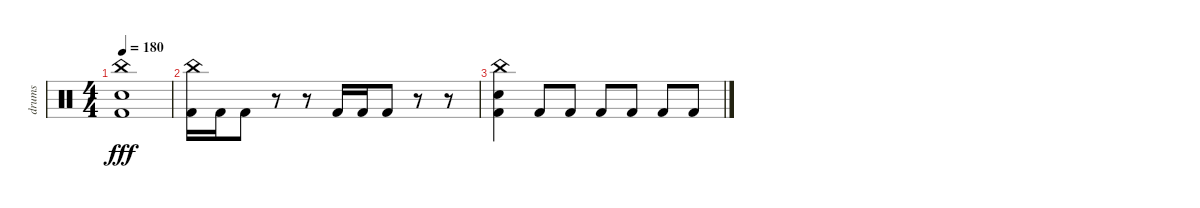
\track ("drums" "drums") {instrument percussion}
\staff {score}
\articulation defaults
\ts (4 4)
\tempo 180
\clef neutral
\ks c
("China (hit)" "Electric Snare (hit)" "Kick (hit) 2").1{dy fff} |
("China (hit)" "Kick (hit) 2").16 "Kick (hit) 2".16 "Kick (hit) 2".8 r.8 r.8 "Kick (hit) 2".16 "Kick (hit) 2".16 "Kick (hit) 2".8 r.8 r.8 |
("China (hit)" "Electric Snare (hit)" "Kick (hit) 2").4 "Kick (hit) 2".8 "Kick (hit) 2".8 "Kick (hit) 2".8 "Kick (hit) 2".8 "Kick (hit) 2".8 "Kick (hit) 2".8
